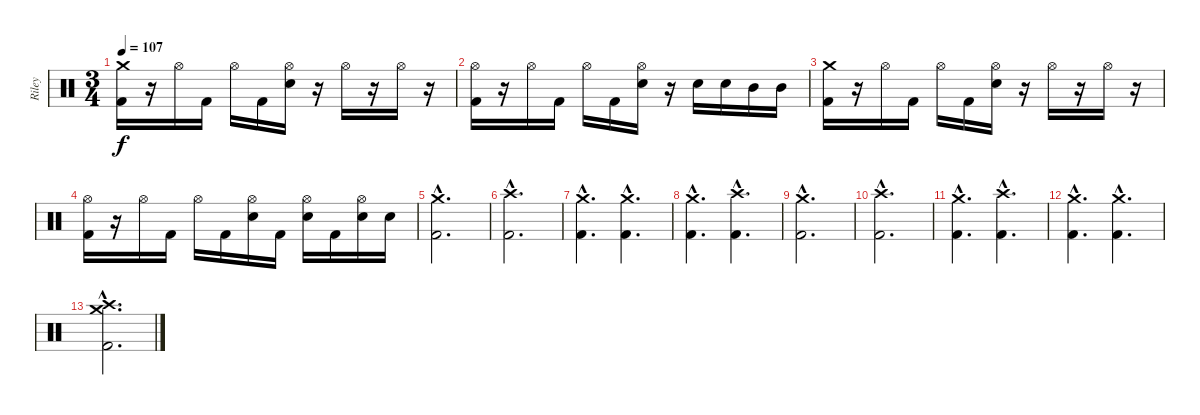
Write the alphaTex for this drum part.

\track ("Riley" "Riley") {instrument percussion}
\staff {score}
\articulation defaults
\ts (3 4)
\tempo 107
\clef neutral
\ks c
("Crash medium (hit)" "Kick (hit) 2").16{dy f} r.16 "Hi-Hat (open)".16 "Kick (hit) 2".16 "Hi-Hat (open)".16 "Kick (hit) 2".16 ("Hi-Hat (open)" "Electric Snare (hit)").16 r.16 "Hi-Hat (open)".16 r.16 "Hi-Hat (open)".16 r.16 |
("Hi-Hat (open)" "Kick (hit) 2").16 r.16 "Hi-Hat (open)".16 "Kick (hit) 2".16 "Hi-Hat (open)".16 "Kick (hit) 2".16 ("Hi-Hat (open)" "Electric Snare (hit)").16 r.16 "Electric Snare (hit)".16 "Electric Snare (hit)".16 "Mid Tom (hit)".16 "Mid Tom (hit)".16 |
("Crash medium (hit)" "Kick (hit) 2").16 r.16 "Hi-Hat (open)".16 "Kick (hit) 2".16 "Hi-Hat (open)".16 "Kick (hit) 2".16 ("Hi-Hat (open)" "Electric Snare (hit)").16 r.16 "Hi-Hat (open)".16 r.16 "Hi-Hat (open)".16 r.16 |
("Hi-Hat (open)" "Kick (hit) 2").16 r.16 "Hi-Hat (open)".16 "Kick (hit) 2".16 "Hi-Hat (open)".16 "Kick (hit) 2".16 ("Hi-Hat (open)" "Electric Snare (hit)").16 "Kick (hit) 2".16 ("Hi-Hat (open)" "Electric Snare (hit)").16 "Kick (hit) 2".16 ("Hi-Hat (open)" "Electric Snare (hit)").16 "Electric Snare (hit)".16 |
("Crash medium (hit)"{hac} "Kick (hit) 2"{hac}).2{d} |
("Crash high (hit)"{hac} "Kick (hit) 2"{hac}).2{d} |
("Crash medium (hit)"{hac} "Kick (hit) 2"{hac}).4{d} ("Crash medium (hit)"{hac} "Kick (hit) 2"{hac}).4{d} |
("Crash medium (hit)"{hac} "Kick (hit) 2"{hac}).4{d} ("Crash high (hit)"{hac} "Kick (hit) 2"{hac}).4{d} |
("Crash medium (hit)"{hac} "Kick (hit) 2"{hac}).2{d} |
("Crash high (hit)"{hac} "Kick (hit) 2"{hac}).2{d} |
("Crash medium (hit)"{hac} "Kick (hit) 2"{hac}).4{d} ("Crash high (hit)"{hac} "Kick (hit) 2"{hac}).4{d} |
("Crash medium (hit)"{hac} "Kick (hit) 2"{hac}).4{d} ("Crash medium (hit)"{hac} "Kick (hit) 2"{hac}).4{d} |
("Crash medium (hit)"{hac} "Crash high (hit)"{hac} "Kick (hit) 2"{hac}).2{d}
